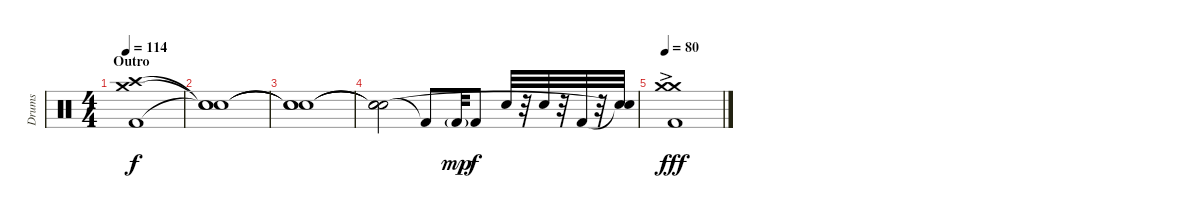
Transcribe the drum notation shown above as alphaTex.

\track ("Drums" "Drums") {instrument percussion}
\staff {score}
\articulation defaults
\ts (4 4)
\section ("" "Outro")
\tempo 114
\clef neutral
\ks c
("Crash high (hit)" "Crash medium (hit)" "Kick (hit) 2").1{dy f} |
("Snare (hit)"{t} "Snare (hit)"{t} "Snare (hit)"{t}).1 |
("Snare (hit)"{t} "Snare (hit)"{t} "Snare (hit)"{t}).1 |
("Snare (hit)"{t} "Snare (hit)"{t} "Snare (hit)"{t}).2 "Kick (hit) 2"{t}.8 "Kick (hit) 2"{g}.32{dy mp} "Kick (hit) 2".8{dy f} "Electric Snare (hit)".32 r.32 "Electric Snare (hit)".32 r.32 "Kick (hit) 2".32 r.32 ("Snare (hit)"{t} "Snare (hit)"{t}).32 |
\tempo 80
("Crash medium (hit)"{ac} "Crash medium (hit)"{ac} "Kick (hit) 2").1{dy fff}
